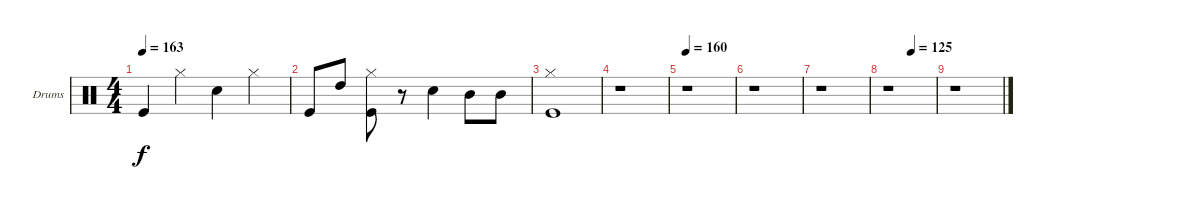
\bracketExtendMode groupsimilarinstruments
\firstSystemTrackNameOrientation horizontal
\otherSystemsTrackNameOrientation horizontal
\track ("Drumkit" "Drums") {instrument percussion}
\staff {score}
\articulation defaults
\ts (4 4)
\tempo 163
\clef neutral
\scale
0.333333
\ks c "Kick (hit)".4{dy f} "Hi-Hat (closed)".4 "Snare (hit) 2".4 "Hi-Hat (closed)".4
|
\scale
0.333333 "Kick (hit)".8 "High Tom (hit)".8 ("Hi-Hat (closed)" "Kick (hit)").8 r.8 "Snare (hit) 2".4 "Mid Tom (hit)".8 "Mid Tom (hit)".8 |
\scale
0.333333 ("Hi-Hat (closed)" "Kick (hit)").1 |
\scale
0.333333 r.1 |
\tempo 160
\scale
0.333333 r.1 |
\scale
0.333333 r.1 |
\scale
0.333333 r.1 |
\tempo (125 0.5)
r.1 |
r.1
